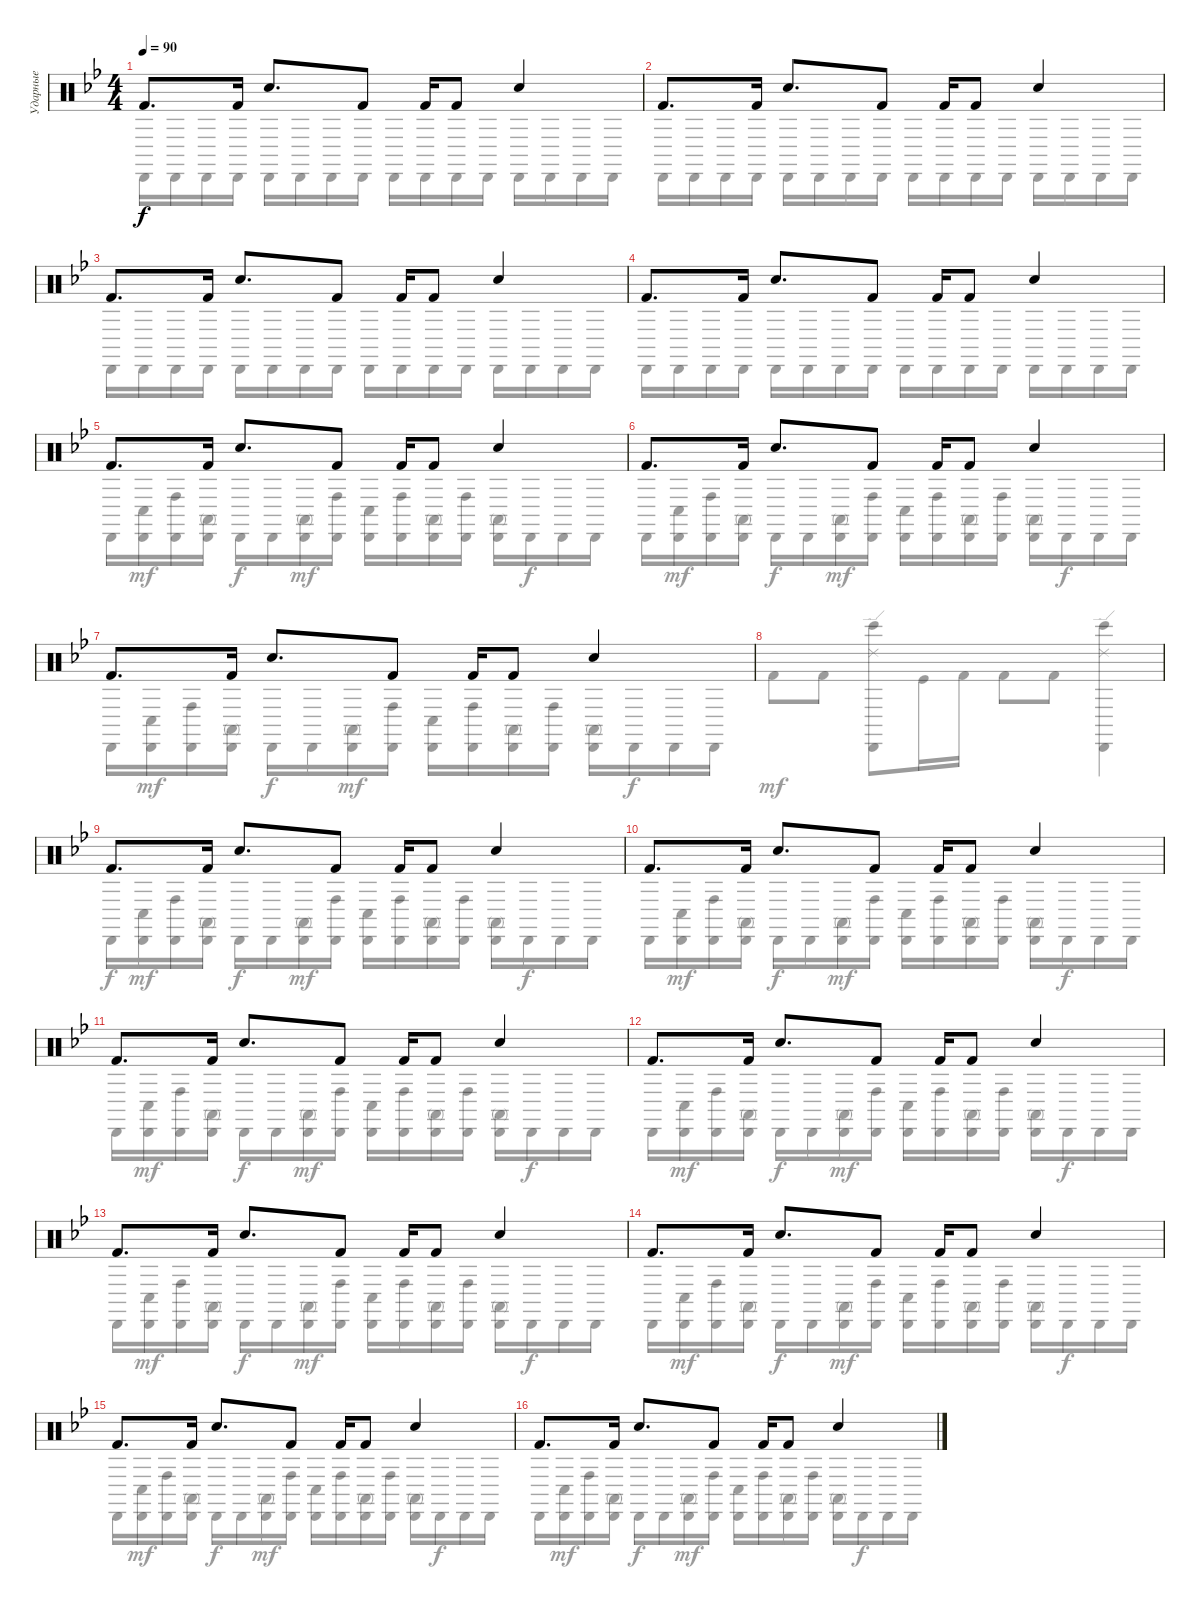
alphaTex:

\track ("Ударные" "Ударные") {instrument percussion}
\staff {score}
\articulation defaults
\voice
\ts (4 4)
\tempo 90
\clef neutral
\ks bb "Kick (hit) 2".8{d dy f} "Kick (hit) 2".16 "Hand Clap (hit)".8{d} "Kick (hit) 2".8 "Kick (hit) 2".16 "Kick (hit) 2".8 "Hand Clap (hit)".4
|
"Kick (hit) 2".8{d} "Kick (hit) 2".16 "Hand Clap (hit)".8{d} "Kick (hit) 2".8 "Kick (hit) 2".16 "Kick (hit) 2".8 "Hand Clap (hit)".4 |
"Kick (hit) 2".8{d} "Kick (hit) 2".16 "Hand Clap (hit)".8{d} "Kick (hit) 2".8 "Kick (hit) 2".16 "Kick (hit) 2".8 "Hand Clap (hit)".4 |
"Kick (hit) 2".8{d} "Kick (hit) 2".16 "Hand Clap (hit)".8{d} "Kick (hit) 2".8 "Kick (hit) 2".16 "Kick (hit) 2".8 "Hand Clap (hit)".4 |
"Kick (hit) 2".8{d} "Kick (hit) 2".16 "Hand Clap (hit)".8{d} "Kick (hit) 2".8 "Kick (hit) 2".16 "Kick (hit) 2".8 "Hand Clap (hit)".4 |
"Kick (hit) 2".8{d} "Kick (hit) 2".16 "Hand Clap (hit)".8{d} "Kick (hit) 2".8 "Kick (hit) 2".16 "Kick (hit) 2".8 "Hand Clap (hit)".4 |
"Kick (hit) 2".8{d} "Kick (hit) 2".16 "Hand Clap (hit)".8{d} "Kick (hit) 2".8 "Kick (hit) 2".16 "Kick (hit) 2".8 "Hand Clap (hit)".4 |
|
"Kick (hit) 2".8{d} "Kick (hit) 2".16 "Hand Clap (hit)".8{d} "Kick (hit) 2".8 "Kick (hit) 2".16 "Kick (hit) 2".8 "Hand Clap (hit)".4 |
"Kick (hit) 2".8{d} "Kick (hit) 2".16 "Hand Clap (hit)".8{d} "Kick (hit) 2".8 "Kick (hit) 2".16 "Kick (hit) 2".8 "Hand Clap (hit)".4 |
"Kick (hit) 2".8{d} "Kick (hit) 2".16 "Hand Clap (hit)".8{d} "Kick (hit) 2".8 "Kick (hit) 2".16 "Kick (hit) 2".8 "Hand Clap (hit)".4 |
"Kick (hit) 2".8{d} "Kick (hit) 2".16 "Hand Clap (hit)".8{d} "Kick (hit) 2".8 "Kick (hit) 2".16 "Kick (hit) 2".8 "Hand Clap (hit)".4 |
"Kick (hit) 2".8{d} "Kick (hit) 2".16 "Hand Clap (hit)".8{d} "Kick (hit) 2".8 "Kick (hit) 2".16 "Kick (hit) 2".8 "Hand Clap (hit)".4 |
"Kick (hit) 2".8{d} "Kick (hit) 2".16 "Hand Clap (hit)".8{d} "Kick (hit) 2".8 "Kick (hit) 2".16 "Kick (hit) 2".8 "Hand Clap (hit)".4 |
"Kick (hit) 2".8{d} "Kick (hit) 2".16 "Hand Clap (hit)".8{d} "Kick (hit) 2".8 "Kick (hit) 2".16 "Kick (hit) 2".8 "Hand Clap (hit)".4 |
"Kick (hit) 2".8{d} "Kick (hit) 2".16 "Hand Clap (hit)".8{d} "Kick (hit) 2".8 "Kick (hit) 2".16 "Kick (hit) 2".8 "Hand Clap (hit)".4
\voice
\clef neutral
\ottava regular
\simile none
\ks bb "Cabasa (hit)".16{dy f} "Cabasa (hit)".16 "Cabasa (hit)".16 "Cabasa (hit)".16 "Cabasa (hit)".16 "Cabasa (hit)".16 "Cabasa (hit)".16 "Cabasa (hit)".16 "Cabasa (hit)".16 "Cabasa (hit)".16 "Cabasa (hit)".16 "Cabasa (hit)".16 "Cabasa (hit)".16 "Cabasa (hit)".16 "Cabasa (hit)".16 "Cabasa (hit)".16
|
"Cabasa (hit)".16 "Cabasa (hit)".16 "Cabasa (hit)".16 "Cabasa (hit)".16 "Cabasa (hit)".16 "Cabasa (hit)".16 "Cabasa (hit)".16 "Cabasa (hit)".16 "Cabasa (hit)".16 "Cabasa (hit)".16 "Cabasa (hit)".16 "Cabasa (hit)".16 "Cabasa (hit)".16 "Cabasa (hit)".16 "Cabasa (hit)".16 "Cabasa (hit)".16 |
"Cabasa (hit)".16 "Cabasa (hit)".16 "Cabasa (hit)".16 "Cabasa (hit)".16 "Cabasa (hit)".16 "Cabasa (hit)".16 "Cabasa (hit)".16 "Cabasa (hit)".16 "Cabasa (hit)".16 "Cabasa (hit)".16 "Cabasa (hit)".16 "Cabasa (hit)".16 "Cabasa (hit)".16 "Cabasa (hit)".16 "Cabasa (hit)".16 "Cabasa (hit)".16 |
"Cabasa (hit)".16 "Cabasa (hit)".16 "Cabasa (hit)".16 "Cabasa (hit)".16 "Cabasa (hit)".16 "Cabasa (hit)".16 "Cabasa (hit)".16 "Cabasa (hit)".16 "Cabasa (hit)".16 "Cabasa (hit)".16 "Cabasa (hit)".16 "Cabasa (hit)".16 "Cabasa (hit)".16 "Cabasa (hit)".16 "Cabasa (hit)".16 "Cabasa (hit)".16 |
"Cabasa (hit)".16 ("Cabasa (hit)" "Conga low (hit)").16{dy mf} ("Cabasa (hit)" "Conga high (hit)").16 ("Cabasa (hit)" "Conga high (mute)").16 "Cabasa (hit)".16{dy f} "Cabasa (hit)".16 ("Cabasa (hit)" "Conga high (mute)").16{dy mf} ("Cabasa (hit)" "Conga high (hit)").16 ("Cabasa (hit)" "Conga low (hit)").16 ("Cabasa (hit)" "Conga high (hit)").16 ("Cabasa (hit)" "Conga high (mute)").16 ("Cabasa (hit)" "Conga high (hit)").16 ("Cabasa (hit)" "Conga high (mute)").16 "Cabasa (hit)".16{dy f} "Cabasa (hit)".16 "Cabasa (hit)".16 |
"Cabasa (hit)".16 ("Cabasa (hit)" "Conga low (hit)").16{dy mf} ("Cabasa (hit)" "Conga high (hit)").16 ("Cabasa (hit)" "Conga high (mute)").16 "Cabasa (hit)".16{dy f} "Cabasa (hit)".16 ("Cabasa (hit)" "Conga high (mute)").16{dy mf} ("Cabasa (hit)" "Conga high (hit)").16 ("Cabasa (hit)" "Conga low (hit)").16 ("Cabasa (hit)" "Conga high (hit)").16 ("Cabasa (hit)" "Conga high (mute)").16 ("Cabasa (hit)" "Conga high (hit)").16 ("Cabasa (hit)" "Conga high (mute)").16 "Cabasa (hit)".16{dy f} "Cabasa (hit)".16 "Cabasa (hit)".16 |
"Cabasa (hit)".16 ("Cabasa (hit)" "Conga low (hit)").16{dy mf} ("Cabasa (hit)" "Conga high (hit)").16 ("Cabasa (hit)" "Conga high (mute)").16 "Cabasa (hit)".16{dy f} "Cabasa (hit)".16 ("Cabasa (hit)" "Conga high (mute)").16{dy mf} ("Cabasa (hit)" "Conga high (hit)").16 ("Cabasa (hit)" "Conga low (hit)").16 ("Cabasa (hit)" "Conga high (hit)").16 ("Cabasa (hit)" "Conga high (mute)").16 ("Cabasa (hit)" "Conga high (hit)").16 ("Cabasa (hit)" "Conga high (mute)").16 "Cabasa (hit)".16{dy f} "Cabasa (hit)".16 "Cabasa (hit)".16 |
"Kick (hit) 2".8{dy mf} "Kick (hit) 2".8 ("Bongo High (hit)" "Cabasa (hit)" "Ride (edge) 2").8 "Kick (hit)".16 "Kick (hit) 2".16 "Kick (hit) 2".8 "Kick (hit) 2".8 ("Bongo High (hit)" "Cabasa (hit)" "Ride (edge) 2").4 |
"Cabasa (hit)".16{dy f} ("Cabasa (hit)" "Conga low (hit)").16{dy mf} ("Cabasa (hit)" "Conga high (hit)").16 ("Cabasa (hit)" "Conga high (mute)").16 "Cabasa (hit)".16{dy f} "Cabasa (hit)".16 ("Cabasa (hit)" "Conga high (mute)").16{dy mf} ("Cabasa (hit)" "Conga high (hit)").16 ("Cabasa (hit)" "Conga low (hit)").16 ("Cabasa (hit)" "Conga high (hit)").16 ("Cabasa (hit)" "Conga high (mute)").16 ("Cabasa (hit)" "Conga high (hit)").16 ("Cabasa (hit)" "Conga high (mute)").16 "Cabasa (hit)".16{dy f} "Cabasa (hit)".16 "Cabasa (hit)".16 |
"Cabasa (hit)".16 ("Cabasa (hit)" "Conga low (hit)").16{dy mf} ("Cabasa (hit)" "Conga high (hit)").16 ("Cabasa (hit)" "Conga high (mute)").16 "Cabasa (hit)".16{dy f} "Cabasa (hit)".16 ("Cabasa (hit)" "Conga high (mute)").16{dy mf} ("Cabasa (hit)" "Conga high (hit)").16 ("Cabasa (hit)" "Conga low (hit)").16 ("Cabasa (hit)" "Conga high (hit)").16 ("Cabasa (hit)" "Conga high (mute)").16 ("Cabasa (hit)" "Conga high (hit)").16 ("Cabasa (hit)" "Conga high (mute)").16 "Cabasa (hit)".16{dy f} "Cabasa (hit)".16 "Cabasa (hit)".16 |
"Cabasa (hit)".16 ("Cabasa (hit)" "Conga low (hit)").16{dy mf} ("Cabasa (hit)" "Conga high (hit)").16 ("Cabasa (hit)" "Conga high (mute)").16 "Cabasa (hit)".16{dy f} "Cabasa (hit)".16 ("Cabasa (hit)" "Conga high (mute)").16{dy mf} ("Cabasa (hit)" "Conga high (hit)").16 ("Cabasa (hit)" "Conga low (hit)").16 ("Cabasa (hit)" "Conga high (hit)").16 ("Cabasa (hit)" "Conga high (mute)").16 ("Cabasa (hit)" "Conga high (hit)").16 ("Cabasa (hit)" "Conga high (mute)").16 "Cabasa (hit)".16{dy f} "Cabasa (hit)".16 "Cabasa (hit)".16 |
"Cabasa (hit)".16 ("Cabasa (hit)" "Conga low (hit)").16{dy mf} ("Cabasa (hit)" "Conga high (hit)").16 ("Cabasa (hit)" "Conga high (mute)").16 "Cabasa (hit)".16{dy f} "Cabasa (hit)".16 ("Cabasa (hit)" "Conga high (mute)").16{dy mf} ("Cabasa (hit)" "Conga high (hit)").16 ("Cabasa (hit)" "Conga low (hit)").16 ("Cabasa (hit)" "Conga high (hit)").16 ("Cabasa (hit)" "Conga high (mute)").16 ("Cabasa (hit)" "Conga high (hit)").16 ("Cabasa (hit)" "Conga high (mute)").16 "Cabasa (hit)".16{dy f} "Cabasa (hit)".16 "Cabasa (hit)".16 |
"Cabasa (hit)".16 ("Cabasa (hit)" "Conga low (hit)").16{dy mf} ("Cabasa (hit)" "Conga high (hit)").16 ("Cabasa (hit)" "Conga high (mute)").16 "Cabasa (hit)".16{dy f} "Cabasa (hit)".16 ("Cabasa (hit)" "Conga high (mute)").16{dy mf} ("Cabasa (hit)" "Conga high (hit)").16 ("Cabasa (hit)" "Conga low (hit)").16 ("Cabasa (hit)" "Conga high (hit)").16 ("Cabasa (hit)" "Conga high (mute)").16 ("Cabasa (hit)" "Conga high (hit)").16 ("Cabasa (hit)" "Conga high (mute)").16 "Cabasa (hit)".16{dy f} "Cabasa (hit)".16 "Cabasa (hit)".16 |
"Cabasa (hit)".16 ("Cabasa (hit)" "Conga low (hit)").16{dy mf} ("Cabasa (hit)" "Conga high (hit)").16 ("Cabasa (hit)" "Conga high (mute)").16 "Cabasa (hit)".16{dy f} "Cabasa (hit)".16 ("Cabasa (hit)" "Conga high (mute)").16{dy mf} ("Cabasa (hit)" "Conga high (hit)").16 ("Cabasa (hit)" "Conga low (hit)").16 ("Cabasa (hit)" "Conga high (hit)").16 ("Cabasa (hit)" "Conga high (mute)").16 ("Cabasa (hit)" "Conga high (hit)").16 ("Cabasa (hit)" "Conga high (mute)").16 "Cabasa (hit)".16{dy f} "Cabasa (hit)".16 "Cabasa (hit)".16 |
"Cabasa (hit)".16 ("Cabasa (hit)" "Conga low (hit)").16{dy mf} ("Cabasa (hit)" "Conga high (hit)").16 ("Cabasa (hit)" "Conga high (mute)").16 "Cabasa (hit)".16{dy f} "Cabasa (hit)".16 ("Cabasa (hit)" "Conga high (mute)").16{dy mf} ("Cabasa (hit)" "Conga high (hit)").16 ("Cabasa (hit)" "Conga low (hit)").16 ("Cabasa (hit)" "Conga high (hit)").16 ("Cabasa (hit)" "Conga high (mute)").16 ("Cabasa (hit)" "Conga high (hit)").16 ("Cabasa (hit)" "Conga high (mute)").16 "Cabasa (hit)".16{dy f} "Cabasa (hit)".16 "Cabasa (hit)".16 |
"Cabasa (hit)".16 ("Cabasa (hit)" "Conga low (hit)").16{dy mf} ("Cabasa (hit)" "Conga high (hit)").16 ("Cabasa (hit)" "Conga high (mute)").16 "Cabasa (hit)".16{dy f} "Cabasa (hit)".16 ("Cabasa (hit)" "Conga high (mute)").16{dy mf} ("Cabasa (hit)" "Conga high (hit)").16 ("Cabasa (hit)" "Conga low (hit)").16 ("Cabasa (hit)" "Conga high (hit)").16 ("Cabasa (hit)" "Conga high (mute)").16 ("Cabasa (hit)" "Conga high (hit)").16 ("Cabasa (hit)" "Conga high (mute)").16 "Cabasa (hit)".16{dy f} "Cabasa (hit)".16 "Cabasa (hit)".16
